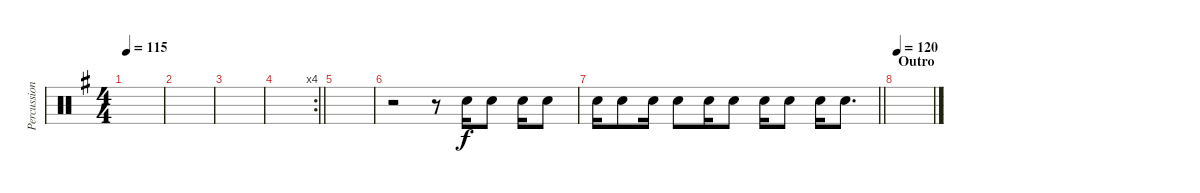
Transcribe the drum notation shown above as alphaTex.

\track ("Percussion FX" "Percussion") {instrument percussion}
\staff {score}
\articulation defaults
\ts (4 4)
\tempo 115
\clef neutral
\ks g
|
|
|
\rc 4
\barLineRight lightlight
|
|
r.2{volume 3} r.8{volume 0} "Electric Snare (hit)".16{dy f} "Electric Snare (hit)".8 "Electric Snare (hit)".16 "Electric Snare (hit)".8 |
\barLineRight lightlight "Electric Snare (hit)".16 "Electric Snare (hit)".8 "Electric Snare (hit)".16 "Electric Snare (hit)".8 "Electric Snare (hit)".16 "Electric Snare (hit)".8 "Electric Snare (hit)".16 "Electric Snare (hit)".8 "Electric Snare (hit)".16 "Electric Snare (hit)".8{d}
|
\section ("" "Outro")
\tempo 120
